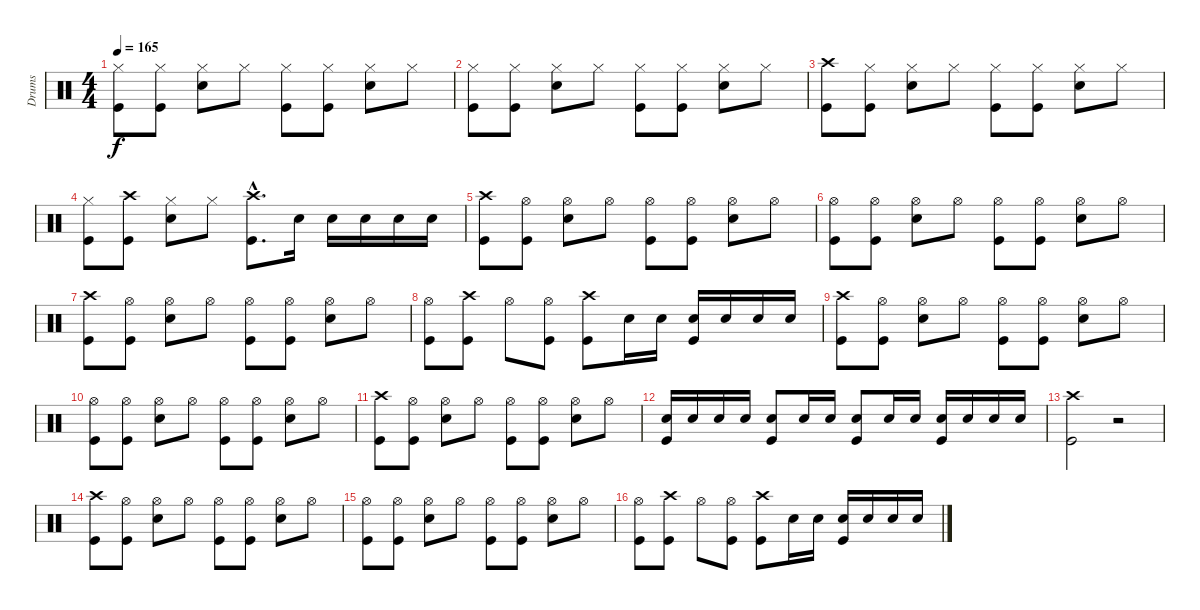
\track ("Drums" "Drums") {instrument percussion}
\staff {score}
\articulation defaults
\ts (4 4)
\tempo 165
\clef neutral
\ks c
("Hi-Hat (closed)" "Kick (hit)").8{dy f} ("Hi-Hat (closed)" "Kick (hit)").8 ("Hi-Hat (closed)" "Snare (hit) 2").8 "Hi-Hat (closed)".8 ("Hi-Hat (closed)" "Kick (hit)").8 ("Hi-Hat (closed)" "Kick (hit)").8 ("Hi-Hat (closed)" "Snare (hit) 2").8 "Hi-Hat (closed)".8 |
("Hi-Hat (closed)" "Kick (hit)").8 ("Hi-Hat (closed)" "Kick (hit)").8 ("Hi-Hat (closed)" "Snare (hit) 2").8 "Hi-Hat (closed)".8 ("Hi-Hat (closed)" "Kick (hit)").8 ("Hi-Hat (closed)" "Kick (hit)").8 ("Hi-Hat (closed)" "Snare (hit) 2").8 "Hi-Hat (closed)".8 |
("Crash high (hit)" "Kick (hit)").8 ("Hi-Hat (closed)" "Kick (hit)").8 ("Hi-Hat (closed)" "Snare (hit) 2").8 "Hi-Hat (closed)".8 ("Hi-Hat (closed)" "Kick (hit)").8 ("Hi-Hat (closed)" "Kick (hit)").8 ("Hi-Hat (closed)" "Snare (hit) 2").8 "Hi-Hat (closed)".8 |
("Hi-Hat (closed)" "Kick (hit)").8 ("Crash high (hit)" "Kick (hit)").8 ("Hi-Hat (closed)" "Snare (hit) 2").8 "Hi-Hat (closed)".8 ("Crash high (hit)"{hac} "Kick (hit)"{hac}).8{d} "Snare (hit) 2".16 "Snare (hit) 2".16 "Snare (hit) 2".16 "Snare (hit) 2".16 "Snare (hit) 2".16 |
("Crash high (hit)" "Kick (hit)").8 ("Hi-Hat (open)" "Kick (hit)").8 ("Hi-Hat (open)" "Snare (hit) 2").8 "Hi-Hat (open)".8 ("Hi-Hat (open)" "Kick (hit)").8 ("Hi-Hat (open)" "Kick (hit)").8 ("Hi-Hat (open)" "Snare (hit) 2").8 "Hi-Hat (open)".8 |
("Hi-Hat (open)" "Kick (hit)").8 ("Hi-Hat (open)" "Kick (hit)").8 ("Hi-Hat (open)" "Snare (hit) 2").8 "Hi-Hat (open)".8 ("Hi-Hat (open)" "Kick (hit)").8 ("Hi-Hat (open)" "Kick (hit)").8 ("Hi-Hat (open)" "Snare (hit) 2").8 "Hi-Hat (open)".8 |
("Crash high (hit)" "Kick (hit)").8 ("Hi-Hat (open)" "Kick (hit)").8 ("Hi-Hat (open)" "Snare (hit) 2").8 "Hi-Hat (open)".8 ("Hi-Hat (open)" "Kick (hit)").8 ("Hi-Hat (open)" "Kick (hit)").8 ("Hi-Hat (open)" "Snare (hit) 2").8 "Hi-Hat (open)".8 |
("Hi-Hat (open)" "Kick (hit)").8 ("Crash high (hit)" "Kick (hit)").8 "Hi-Hat (open)".8 ("Hi-Hat (open)" "Kick (hit)").8 ("Crash high (hit)" "Kick (hit)").8 "Snare (hit) 2".16 "Snare (hit) 2".16 ("Snare (hit) 2" "Kick (hit)").16 "Snare (hit) 2".16 "Snare (hit) 2".16 "Snare (hit) 2".16 |
("Crash high (hit)" "Kick (hit)").8 ("Hi-Hat (open)" "Kick (hit)").8 ("Hi-Hat (open)" "Snare (hit) 2").8 "Hi-Hat (open)".8 ("Hi-Hat (open)" "Kick (hit)").8 ("Hi-Hat (open)" "Kick (hit)").8 ("Hi-Hat (open)" "Snare (hit) 2").8 "Hi-Hat (open)".8 |
("Hi-Hat (open)" "Kick (hit)").8 ("Hi-Hat (open)" "Kick (hit)").8 ("Hi-Hat (open)" "Snare (hit) 2").8 "Hi-Hat (open)".8 ("Hi-Hat (open)" "Kick (hit)").8 ("Hi-Hat (open)" "Kick (hit)").8 ("Hi-Hat (open)" "Snare (hit) 2").8 "Hi-Hat (open)".8 |
("Crash high (hit)" "Kick (hit)").8 ("Hi-Hat (open)" "Kick (hit)").8 ("Hi-Hat (open)" "Snare (hit) 2").8 "Hi-Hat (open)".8 ("Hi-Hat (open)" "Kick (hit)").8 ("Hi-Hat (open)" "Kick (hit)").8 ("Hi-Hat (open)" "Snare (hit) 2").8 "Hi-Hat (open)".8 |
("Snare (hit) 2" "Kick (hit)").16 "Snare (hit) 2".16 "Snare (hit) 2".16 "Snare (hit) 2".16 ("Snare (hit) 2" "Kick (hit)").8 "Snare (hit) 2".16 "Snare (hit) 2".16 ("Snare (hit) 2" "Kick (hit)").8 "Snare (hit) 2".16 "Snare (hit) 2".16 ("Snare (hit) 2" "Kick (hit)").16 "Snare (hit) 2".16 "Snare (hit) 2".16 "Snare (hit) 2".16 |
("Crash high (hit)" "Kick (hit)").2 r.2 |
("Crash high (hit)" "Kick (hit)").8 ("Hi-Hat (open)" "Kick (hit)").8 ("Hi-Hat (open)" "Snare (hit) 2").8 "Hi-Hat (open)".8 ("Hi-Hat (open)" "Kick (hit)").8 ("Hi-Hat (open)" "Kick (hit)").8 ("Hi-Hat (open)" "Snare (hit) 2").8 "Hi-Hat (open)".8 |
("Hi-Hat (open)" "Kick (hit)").8 ("Hi-Hat (open)" "Kick (hit)").8 ("Hi-Hat (open)" "Snare (hit) 2").8 "Hi-Hat (open)".8 ("Hi-Hat (open)" "Kick (hit)").8 ("Hi-Hat (open)" "Kick (hit)").8 ("Hi-Hat (open)" "Snare (hit) 2").8 "Hi-Hat (open)".8 |
("Hi-Hat (open)" "Kick (hit)").8 ("Crash high (hit)" "Kick (hit)").8 "Hi-Hat (open)".8 ("Hi-Hat (open)" "Kick (hit)").8 ("Crash high (hit)" "Kick (hit)").8 "Snare (hit) 2".16 "Snare (hit) 2".16 ("Snare (hit) 2" "Kick (hit)").16 "Snare (hit) 2".16 "Snare (hit) 2".16 "Snare (hit) 2".16
